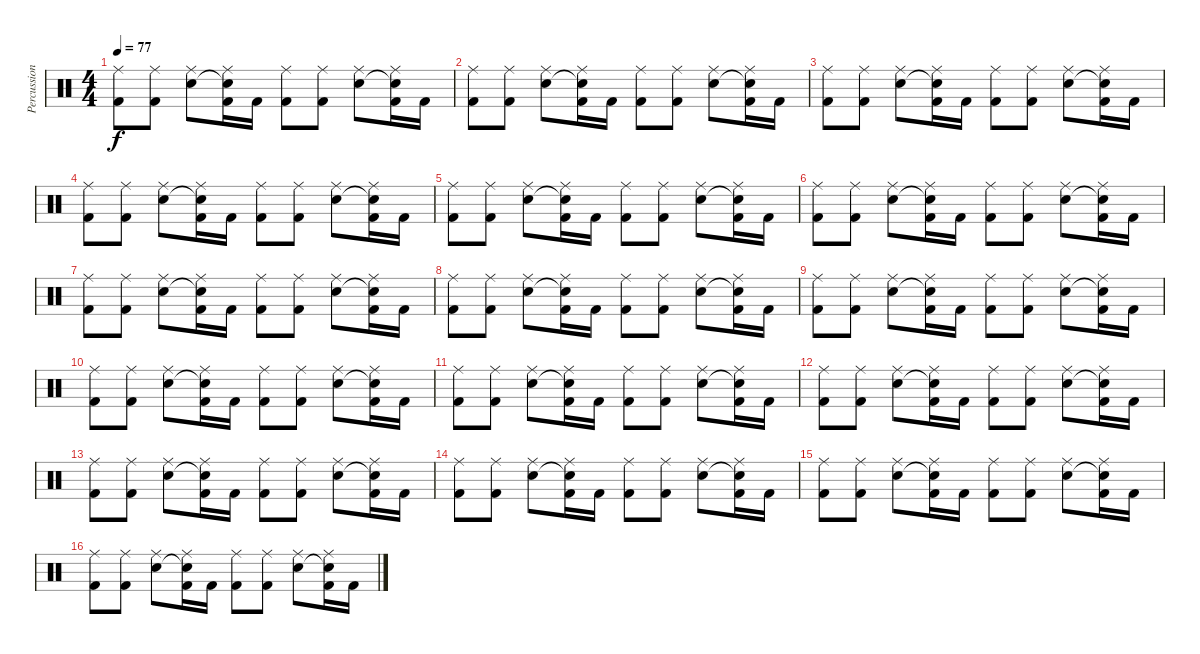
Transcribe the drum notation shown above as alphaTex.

\track ("Percussion" "Percussion") {instrument percussion}
\staff {score}
\articulation defaults
\ts (4 4)
\tempo 77
\clef neutral
\ks c
("Ride (middle)" "Kick (hit) 2").8{dy f} ("Ride (middle)" "Kick (hit) 2").8 ("Ride (middle)" "Electric Snare (hit)").8 ("Ride (middle)" "Snare (hit)"{t} "Kick (hit) 2").16 "Kick (hit) 2".16 ("Ride (middle)" "Kick (hit) 2").8 ("Ride (middle)" "Kick (hit) 2").8 ("Ride (middle)" "Electric Snare (hit)").8 ("Ride (middle)" "Snare (hit)"{t} "Kick (hit) 2").16 "Kick (hit) 2".16 |
("Ride (middle)" "Kick (hit) 2").8 ("Ride (middle)" "Kick (hit) 2").8 ("Ride (middle)" "Electric Snare (hit)").8 ("Ride (middle)" "Snare (hit)"{t} "Kick (hit) 2").16 "Kick (hit) 2".16 ("Ride (middle)" "Kick (hit) 2").8 ("Ride (middle)" "Kick (hit) 2").8 ("Ride (middle)" "Electric Snare (hit)").8 ("Ride (middle)" "Snare (hit)"{t} "Kick (hit) 2").16 "Kick (hit) 2".16 |
("Ride (middle)" "Kick (hit) 2").8 ("Ride (middle)" "Kick (hit) 2").8 ("Ride (middle)" "Electric Snare (hit)").8 ("Ride (middle)" "Snare (hit)"{t} "Kick (hit) 2").16 "Kick (hit) 2".16 ("Ride (middle)" "Kick (hit) 2").8 ("Ride (middle)" "Kick (hit) 2").8 ("Ride (middle)" "Electric Snare (hit)").8 ("Ride (middle)" "Snare (hit)"{t} "Kick (hit) 2").16 "Kick (hit) 2".16 |
("Ride (middle)" "Kick (hit) 2").8 ("Ride (middle)" "Kick (hit) 2").8 ("Ride (middle)" "Electric Snare (hit)").8 ("Ride (middle)" "Snare (hit)"{t} "Kick (hit) 2").16 "Kick (hit) 2".16 ("Ride (middle)" "Kick (hit) 2").8 ("Ride (middle)" "Kick (hit) 2").8 ("Ride (middle)" "Electric Snare (hit)").8 ("Ride (middle)" "Snare (hit)"{t} "Kick (hit) 2").16 "Kick (hit) 2".16 |
("Ride (middle)" "Kick (hit) 2").8 ("Ride (middle)" "Kick (hit) 2").8 ("Ride (middle)" "Electric Snare (hit)").8 ("Ride (middle)" "Snare (hit)"{t} "Kick (hit) 2").16 "Kick (hit) 2".16 ("Ride (middle)" "Kick (hit) 2").8 ("Ride (middle)" "Kick (hit) 2").8 ("Ride (middle)" "Electric Snare (hit)").8 ("Ride (middle)" "Snare (hit)"{t} "Kick (hit) 2").16 "Kick (hit) 2".16 |
("Ride (middle)" "Kick (hit) 2").8 ("Ride (middle)" "Kick (hit) 2").8 ("Ride (middle)" "Electric Snare (hit)").8 ("Ride (middle)" "Snare (hit)"{t} "Kick (hit) 2").16 "Kick (hit) 2".16 ("Ride (middle)" "Kick (hit) 2").8 ("Ride (middle)" "Kick (hit) 2").8 ("Ride (middle)" "Electric Snare (hit)").8 ("Ride (middle)" "Snare (hit)"{t} "Kick (hit) 2").16 "Kick (hit) 2".16 |
("Ride (middle)" "Kick (hit) 2").8 ("Ride (middle)" "Kick (hit) 2").8 ("Ride (middle)" "Electric Snare (hit)").8 ("Ride (middle)" "Snare (hit)"{t} "Kick (hit) 2").16 "Kick (hit) 2".16 ("Ride (middle)" "Kick (hit) 2").8 ("Ride (middle)" "Kick (hit) 2").8 ("Ride (middle)" "Electric Snare (hit)").8 ("Ride (middle)" "Snare (hit)"{t} "Kick (hit) 2").16 "Kick (hit) 2".16 |
("Ride (middle)" "Kick (hit) 2").8 ("Ride (middle)" "Kick (hit) 2").8 ("Ride (middle)" "Electric Snare (hit)").8 ("Ride (middle)" "Snare (hit)"{t} "Kick (hit) 2").16 "Kick (hit) 2".16 ("Ride (middle)" "Kick (hit) 2").8 ("Ride (middle)" "Kick (hit) 2").8 ("Ride (middle)" "Electric Snare (hit)").8 ("Ride (middle)" "Snare (hit)"{t} "Kick (hit) 2").16 "Kick (hit) 2".16 |
("Ride (middle)" "Kick (hit) 2").8 ("Ride (middle)" "Kick (hit) 2").8 ("Ride (middle)" "Electric Snare (hit)").8 ("Ride (middle)" "Snare (hit)"{t} "Kick (hit) 2").16 "Kick (hit) 2".16 ("Ride (middle)" "Kick (hit) 2").8 ("Ride (middle)" "Kick (hit) 2").8 ("Ride (middle)" "Electric Snare (hit)").8 ("Ride (middle)" "Snare (hit)"{t} "Kick (hit) 2").16 "Kick (hit) 2".16 |
("Ride (middle)" "Kick (hit) 2").8 ("Ride (middle)" "Kick (hit) 2").8 ("Ride (middle)" "Electric Snare (hit)").8 ("Ride (middle)" "Snare (hit)"{t} "Kick (hit) 2").16 "Kick (hit) 2".16 ("Ride (middle)" "Kick (hit) 2").8 ("Ride (middle)" "Kick (hit) 2").8 ("Ride (middle)" "Electric Snare (hit)").8 ("Ride (middle)" "Snare (hit)"{t} "Kick (hit) 2").16 "Kick (hit) 2".16 |
("Ride (middle)" "Kick (hit) 2").8 ("Ride (middle)" "Kick (hit) 2").8 ("Ride (middle)" "Electric Snare (hit)").8 ("Ride (middle)" "Snare (hit)"{t} "Kick (hit) 2").16 "Kick (hit) 2".16 ("Ride (middle)" "Kick (hit) 2").8 ("Ride (middle)" "Kick (hit) 2").8 ("Ride (middle)" "Electric Snare (hit)").8 ("Ride (middle)" "Snare (hit)"{t} "Kick (hit) 2").16 "Kick (hit) 2".16 |
("Ride (middle)" "Kick (hit) 2").8 ("Ride (middle)" "Kick (hit) 2").8 ("Ride (middle)" "Electric Snare (hit)").8 ("Ride (middle)" "Snare (hit)"{t} "Kick (hit) 2").16 "Kick (hit) 2".16 ("Ride (middle)" "Kick (hit) 2").8 ("Ride (middle)" "Kick (hit) 2").8 ("Ride (middle)" "Electric Snare (hit)").8 ("Ride (middle)" "Snare (hit)"{t} "Kick (hit) 2").16 "Kick (hit) 2".16 |
("Ride (middle)" "Kick (hit) 2").8 ("Ride (middle)" "Kick (hit) 2").8 ("Ride (middle)" "Electric Snare (hit)").8 ("Ride (middle)" "Snare (hit)"{t} "Kick (hit) 2").16 "Kick (hit) 2".16 ("Ride (middle)" "Kick (hit) 2").8 ("Ride (middle)" "Kick (hit) 2").8 ("Ride (middle)" "Electric Snare (hit)").8 ("Ride (middle)" "Snare (hit)"{t} "Kick (hit) 2").16 "Kick (hit) 2".16 |
("Ride (middle)" "Kick (hit) 2").8 ("Ride (middle)" "Kick (hit) 2").8 ("Ride (middle)" "Electric Snare (hit)").8 ("Ride (middle)" "Snare (hit)"{t} "Kick (hit) 2").16 "Kick (hit) 2".16 ("Ride (middle)" "Kick (hit) 2").8 ("Ride (middle)" "Kick (hit) 2").8 ("Ride (middle)" "Electric Snare (hit)").8 ("Ride (middle)" "Snare (hit)"{t} "Kick (hit) 2").16 "Kick (hit) 2".16 |
("Ride (middle)" "Kick (hit) 2").8 ("Ride (middle)" "Kick (hit) 2").8 ("Ride (middle)" "Electric Snare (hit)").8 ("Ride (middle)" "Snare (hit)"{t} "Kick (hit) 2").16 "Kick (hit) 2".16 ("Ride (middle)" "Kick (hit) 2").8 ("Ride (middle)" "Kick (hit) 2").8 ("Ride (middle)" "Electric Snare (hit)").8 ("Ride (middle)" "Snare (hit)"{t} "Kick (hit) 2").16 "Kick (hit) 2".16 |
("Ride (middle)" "Kick (hit) 2").8 ("Ride (middle)" "Kick (hit) 2").8 ("Ride (middle)" "Electric Snare (hit)").8 ("Ride (middle)" "Snare (hit)"{t} "Kick (hit) 2").16 "Kick (hit) 2".16 ("Ride (middle)" "Kick (hit) 2").8 ("Ride (middle)" "Kick (hit) 2").8 ("Ride (middle)" "Electric Snare (hit)").8 ("Ride (middle)" "Snare (hit)"{t} "Kick (hit) 2").16 "Kick (hit) 2".16
